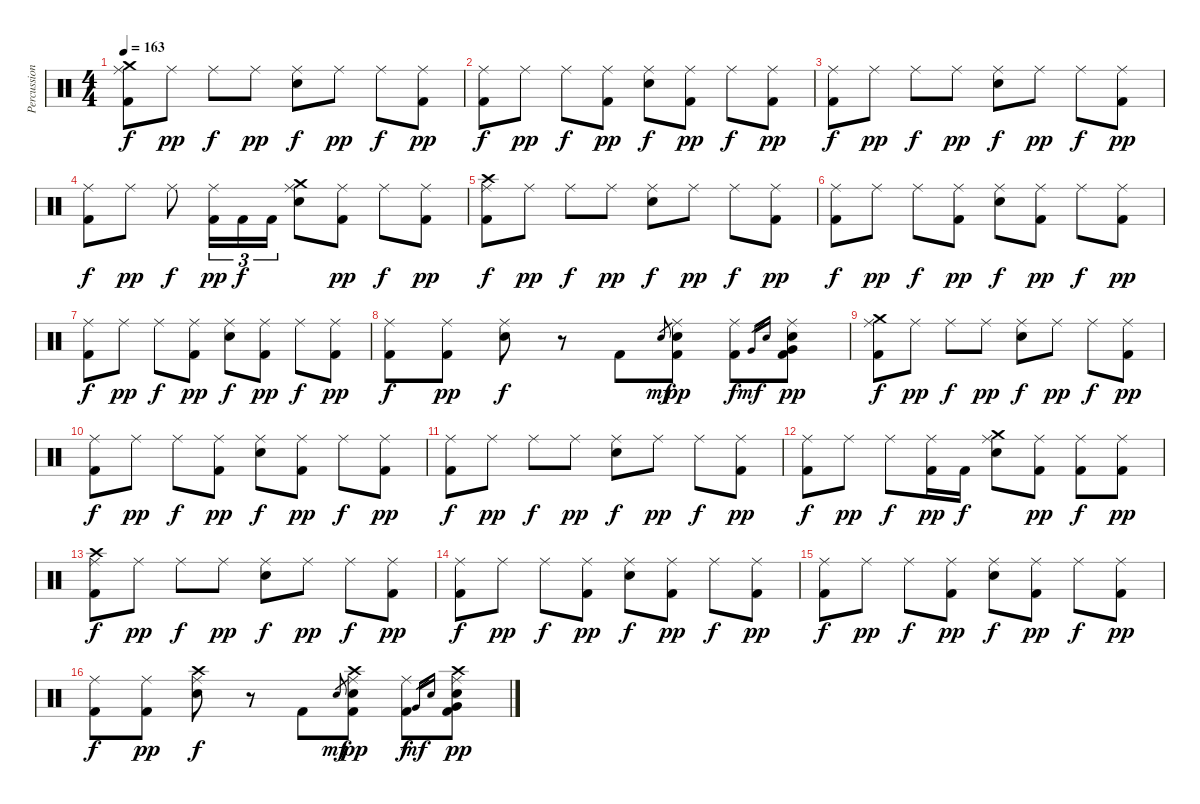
\track ("Percussion" "Percussion") {instrument percussion}
\staff {score}
\articulation defaults
\ts (4 4)
\tempo 163
\tempo 135
\tempo 163
\clef neutral
\ks c
("Ride (middle)" "Crash medium (hit)" "Kick (hit) 2").8{dy f} "Ride (middle)".8{dy pp} "Ride (middle)".8{dy f} "Ride (middle)".8{dy pp} ("Ride (middle)" "Electric Snare (hit)").8{dy f} "Ride (middle)".8{dy pp} "Ride (middle)".8{dy f} ("Ride (middle)" "Kick (hit) 2").8{dy pp} |
("Ride (middle)" "Kick (hit) 2").8{dy f} "Ride (middle)".8{dy pp} "Ride (middle)".8{dy f} ("Ride (middle)" "Kick (hit) 2").8{dy pp} ("Ride (middle)" "Electric Snare (hit)").8{dy f} ("Ride (middle)" "Kick (hit) 2").8{dy pp} "Ride (middle)".8{dy f} ("Ride (middle)" "Kick (hit) 2").8{dy pp} |
("Ride (middle)" "Kick (hit) 2").8{dy f} "Ride (middle)".8{dy pp} "Ride (middle)".8{dy f} "Ride (middle)".8{dy pp} ("Ride (middle)" "Electric Snare (hit)").8{dy f} "Ride (middle)".8{dy pp} "Ride (middle)".8{dy f} ("Ride (middle)" "Kick (hit) 2").8{dy pp} |
("Ride (middle)" "Kick (hit) 2").8{dy f} "Ride (middle)".8{dy pp} "Ride (middle)".8{dy f} ("Ride (middle)" "Kick (hit) 2").16{tu (3 2) dy pp} "Kick (hit) 2".16{tu (3 2) dy f} "Kick (hit) 2".16{tu (3 2)} ("Ride (middle)" "Crash medium (hit)" "Electric Snare (hit)").8 ("Ride (middle)" "Kick (hit) 2").8{dy pp} "Ride (middle)".8{dy f} ("Ride (middle)" "Kick (hit) 2").8{dy pp} |
("Ride (middle)" "Crash high (hit)" "Kick (hit) 2").8{dy f} "Ride (middle)".8{dy pp} "Ride (middle)".8{dy f} "Ride (middle)".8{dy pp} ("Ride (middle)" "Electric Snare (hit)").8{dy f} "Ride (middle)".8{dy pp} "Ride (middle)".8{dy f} ("Ride (middle)" "Kick (hit) 2").8{dy pp} |
("Ride (middle)" "Kick (hit) 2").8{dy f} "Ride (middle)".8{dy pp} "Ride (middle)".8{dy f} ("Ride (middle)" "Kick (hit) 2").8{dy pp} ("Ride (middle)" "Electric Snare (hit)").8{dy f} ("Ride (middle)" "Kick (hit) 2").8{dy pp} "Ride (middle)".8{dy f} ("Ride (middle)" "Kick (hit) 2").8{dy pp} |
("Ride (middle)" "Kick (hit) 2").8{dy f} "Ride (middle)".8{dy pp} "Ride (middle)".8{dy f} ("Ride (middle)" "Kick (hit) 2").8{dy pp} ("Ride (middle)" "Electric Snare (hit)").8{dy f} ("Ride (middle)" "Kick (hit) 2").8{dy pp} "Ride (middle)".8{dy f} ("Ride (middle)" "Kick (hit) 2").8{dy pp} |
("Ride (middle)" "Kick (hit) 2").8{dy f} ("Ride (middle)" "Kick (hit) 2").8{dy pp} ("Ride (middle)" "Electric Snare (hit)").8{dy f} r.8 "Kick (hit) 2".8 "Electric Snare (hit)".8{gr dy mf} ("Ride (middle)" "Kick (hit) 2" "Electric Snare (hit)").8{dy pp} ("Ride (middle)" "Kick (hit) 2").8{dy f} "Very Low Tom (hit)".16{gr dy mf} "Electric Snare (hit)".16{gr} ("Ride (middle)" "Kick (hit) 2" "Very Low Tom (hit)" "Electric Snare (hit)").8{dy pp} |
("Ride (middle)" "Crash medium (hit)" "Kick (hit) 2").8{dy f} "Ride (middle)".8{dy pp} "Ride (middle)".8{dy f} "Ride (middle)".8{dy pp} ("Ride (middle)" "Electric Snare (hit)").8{dy f} "Ride (middle)".8{dy pp} "Ride (middle)".8{dy f} ("Ride (middle)" "Kick (hit) 2").8{dy pp} |
("Ride (middle)" "Kick (hit) 2").8{dy f} "Ride (middle)".8{dy pp} "Ride (middle)".8{dy f} ("Ride (middle)" "Kick (hit) 2").8{dy pp} ("Ride (middle)" "Electric Snare (hit)").8{dy f} ("Ride (middle)" "Kick (hit) 2").8{dy pp} "Ride (middle)".8{dy f} ("Ride (middle)" "Kick (hit) 2").8{dy pp} |
("Ride (middle)" "Kick (hit) 2").8{dy f} "Ride (middle)".8{dy pp} "Ride (middle)".8{dy f} "Ride (middle)".8{dy pp} ("Ride (middle)" "Electric Snare (hit)").8{dy f} "Ride (middle)".8{dy pp} "Ride (middle)".8{dy f} ("Ride (middle)" "Kick (hit) 2").8{dy pp} |
("Ride (middle)" "Kick (hit) 2").8{dy f} "Ride (middle)".8{dy pp} "Ride (middle)".8{dy f} ("Ride (middle)" "Kick (hit) 2").16{dy pp} "Kick (hit) 2".16{dy f} ("Ride (middle)" "Crash medium (hit)" "Electric Snare (hit)").8 ("Ride (middle)" "Kick (hit) 2").8{dy pp} ("Ride (middle)" "Kick (hit) 2").8{dy f} ("Ride (middle)" "Kick (hit) 2").8{dy pp} |
("Ride (middle)" "Crash high (hit)" "Kick (hit) 2").8{dy f} "Ride (middle)".8{dy pp} "Ride (middle)".8{dy f} "Ride (middle)".8{dy pp} ("Ride (middle)" "Electric Snare (hit)").8{dy f} "Ride (middle)".8{dy pp} "Ride (middle)".8{dy f} ("Ride (middle)" "Kick (hit) 2").8{dy pp} |
("Ride (middle)" "Kick (hit) 2").8{dy f} "Ride (middle)".8{dy pp} "Ride (middle)".8{dy f} ("Ride (middle)" "Kick (hit) 2").8{dy pp} ("Ride (middle)" "Electric Snare (hit)").8{dy f} ("Ride (middle)" "Kick (hit) 2").8{dy pp} "Ride (middle)".8{dy f} ("Ride (middle)" "Kick (hit) 2").8{dy pp} |
("Ride (middle)" "Kick (hit) 2").8{dy f} "Ride (middle)".8{dy pp} "Ride (middle)".8{dy f} ("Ride (middle)" "Kick (hit) 2").8{dy pp} ("Ride (middle)" "Electric Snare (hit)").8{dy f} ("Ride (middle)" "Kick (hit) 2").8{dy pp} "Ride (middle)".8{dy f} ("Ride (middle)" "Kick (hit) 2").8{dy pp} |
("Ride (middle)" "Kick (hit) 2").8{dy f} ("Ride (middle)" "Kick (hit) 2").8{dy pp} ("Ride (middle)" "Crash high (hit)" "Electric Snare (hit)").8{dy f} r.8 "Kick (hit) 2".8 "Electric Snare (hit)".8{gr dy mf} ("Ride (middle)" "Crash high (hit)" "Kick (hit) 2" "Electric Snare (hit)").8{dy pp} ("Ride (middle)" "Kick (hit) 2").8{dy f} "Very Low Tom (hit)".16{gr dy mf} "Electric Snare (hit)".16{gr} ("Ride (middle)" "Crash high (hit)" "Kick (hit) 2" "Very Low Tom (hit)" "Electric Snare (hit)").8{dy pp}
